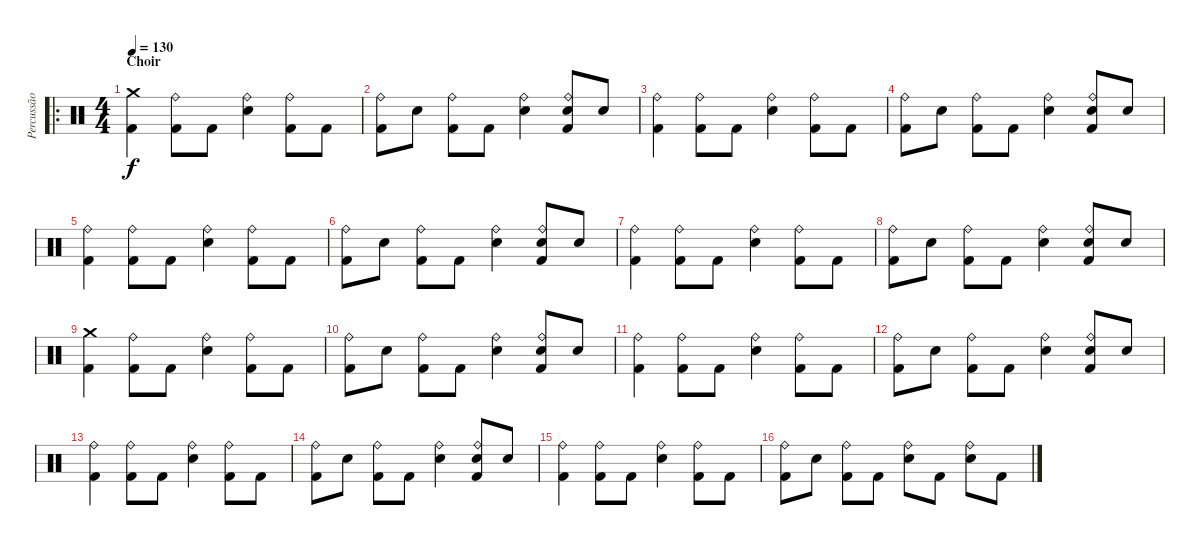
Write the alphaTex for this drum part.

\track ("Percussão" "Percussão") {instrument percussion}
\staff {score}
\articulation defaults
\ro
\ts (4 4)
\section ("" "Choir")
\tempo 130
\clef neutral
\ks c
("Crash medium (hit)" "Kick (hit) 2").4{dy f} ("Ride (bell)" "Kick (hit) 2").8 "Kick (hit) 2".8 ("Ride (bell)" "Electric Snare (hit)").4 ("Ride (bell)" "Kick (hit) 2").8 "Kick (hit) 2".8 |
("Ride (bell)" "Kick (hit) 2").8 "Electric Snare (hit)".8 ("Ride (bell)" "Kick (hit) 2").8 "Kick (hit) 2".8 ("Ride (bell)" "Electric Snare (hit)").4 ("Ride (bell)" "Electric Snare (hit)" "Kick (hit) 2").8 "Electric Snare (hit)".8 |
("Ride (bell)" "Kick (hit) 2").4 ("Ride (bell)" "Kick (hit) 2").8 "Kick (hit) 2".8 ("Ride (bell)" "Electric Snare (hit)").4 ("Ride (bell)" "Kick (hit) 2").8 "Kick (hit) 2".8 |
("Ride (bell)" "Kick (hit) 2").8 "Electric Snare (hit)".8 ("Ride (bell)" "Kick (hit) 2").8 "Kick (hit) 2".8 ("Ride (bell)" "Electric Snare (hit)").4 ("Ride (bell)" "Electric Snare (hit)" "Kick (hit) 2").8 "Electric Snare (hit)".8 |
("Ride (bell)" "Kick (hit) 2").4 ("Ride (bell)" "Kick (hit) 2").8 "Kick (hit) 2".8 ("Ride (bell)" "Electric Snare (hit)").4 ("Ride (bell)" "Kick (hit) 2").8 "Kick (hit) 2".8 |
("Ride (bell)" "Kick (hit) 2").8 "Electric Snare (hit)".8 ("Ride (bell)" "Kick (hit) 2").8 "Kick (hit) 2".8 ("Ride (bell)" "Electric Snare (hit)").4 ("Ride (bell)" "Electric Snare (hit)" "Kick (hit) 2").8 "Electric Snare (hit)".8 |
("Ride (bell)" "Kick (hit) 2").4 ("Ride (bell)" "Kick (hit) 2").8 "Kick (hit) 2".8 ("Ride (bell)" "Electric Snare (hit)").4 ("Ride (bell)" "Kick (hit) 2").8 "Kick (hit) 2".8 |
("Ride (bell)" "Kick (hit) 2").8 "Electric Snare (hit)".8 ("Ride (bell)" "Kick (hit) 2").8 "Kick (hit) 2".8 ("Ride (bell)" "Electric Snare (hit)").4 ("Ride (bell)" "Electric Snare (hit)" "Kick (hit) 2").8 "Electric Snare (hit)".8 |
("Crash medium (hit)" "Kick (hit) 2").4 ("Ride (bell)" "Kick (hit) 2").8 "Kick (hit) 2".8 ("Ride (bell)" "Electric Snare (hit)").4 ("Ride (bell)" "Kick (hit) 2").8 "Kick (hit) 2".8 |
("Ride (bell)" "Kick (hit) 2").8 "Electric Snare (hit)".8 ("Ride (bell)" "Kick (hit) 2").8 "Kick (hit) 2".8 ("Ride (bell)" "Electric Snare (hit)").4 ("Ride (bell)" "Electric Snare (hit)" "Kick (hit) 2").8 "Electric Snare (hit)".8 |
("Ride (bell)" "Kick (hit) 2").4 ("Ride (bell)" "Kick (hit) 2").8 "Kick (hit) 2".8 ("Ride (bell)" "Electric Snare (hit)").4 ("Ride (bell)" "Kick (hit) 2").8 "Kick (hit) 2".8 |
("Ride (bell)" "Kick (hit) 2").8 "Electric Snare (hit)".8 ("Ride (bell)" "Kick (hit) 2").8 "Kick (hit) 2".8 ("Ride (bell)" "Electric Snare (hit)").4 ("Ride (bell)" "Electric Snare (hit)" "Kick (hit) 2").8 "Electric Snare (hit)".8 |
("Ride (bell)" "Kick (hit) 2").4 ("Ride (bell)" "Kick (hit) 2").8 "Kick (hit) 2".8 ("Ride (bell)" "Electric Snare (hit)").4 ("Ride (bell)" "Kick (hit) 2").8 "Kick (hit) 2".8 |
("Ride (bell)" "Kick (hit) 2").8 "Electric Snare (hit)".8 ("Ride (bell)" "Kick (hit) 2").8 "Kick (hit) 2".8 ("Ride (bell)" "Electric Snare (hit)").4 ("Ride (bell)" "Electric Snare (hit)" "Kick (hit) 2").8 "Electric Snare (hit)".8 |
("Ride (bell)" "Kick (hit) 2").4 ("Ride (bell)" "Kick (hit) 2").8 "Kick (hit) 2".8 ("Ride (bell)" "Electric Snare (hit)").4 ("Ride (bell)" "Kick (hit) 2").8 "Kick (hit) 2".8 |
("Ride (bell)" "Kick (hit) 2").8 "Electric Snare (hit)".8 ("Ride (bell)" "Kick (hit) 2").8 "Kick (hit) 2".8 ("Ride (bell)" "Electric Snare (hit)").8 "Kick (hit) 2".8 ("Ride (bell)" "Electric Snare (hit)").8 "Kick (hit) 2".8
